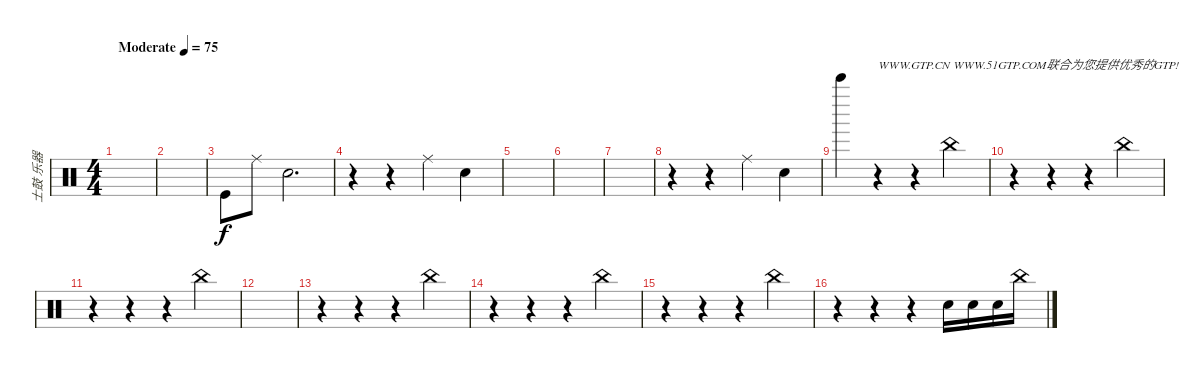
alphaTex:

\track ("士鼓 乐器" "士鼓 乐器") {instrument percussion}
\staff {score}
\articulation defaults
\ts (4 4)
\tempo (75 "Moderate")
\clef neutral
\ks c
|
|
"Kick (hit)".8 "Ride (middle)".8 "Hand Clap (hit)".2{d} |
r.4 r.4 "Ride (middle)".4 "Hand Clap (hit)".4 |
|
|
|
r.4 r.4 "Ride (middle)".4 "Hand Clap (hit)".4 |
"Bell Tree (hit)".4 r.4{txt "WWW.GTP.CN WWW.51GTP.COM联合为您提供优秀的GTP!"} r.4 "China (hit)".4 |
r.4 r.4 r.4 "China (hit)".4 |
r.4 r.4 r.4 "China (hit)".4 |
|
r.4 r.4 r.4 "China (hit)".4 |
r.4 r.4 r.4 "China (hit)".4 |
r.4 r.4 r.4 "China (hit)".4 |
r.4 r.4 r.4 "Snare (hit) 2".16 "Snare (hit) 2".16 "Snare (hit) 2".16 "China (hit)".16
